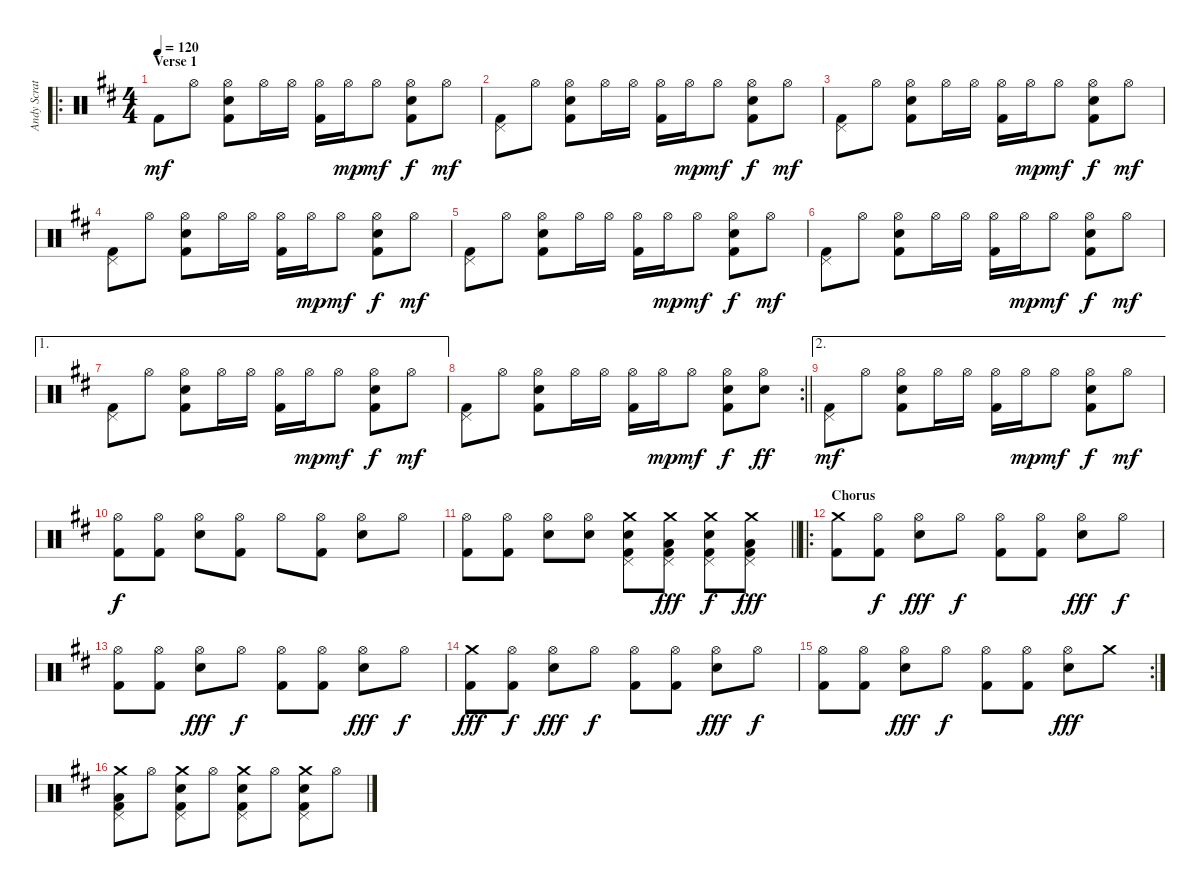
\track ("Andy Scratchen (Drums)" "Andy Scrat") {instrument percussion}
\staff {score}
\articulation defaults
\ro
\ts (4 4)
\section ("" "Verse 1")
\tempo 120
\clef neutral
\ks bminor "Kick (hit) 2".8{dy mf} "Hi-Hat (open)".8
("Hi-Hat (open)" "Snare (hit) 2" "Kick (hit) 2").8 "Hi-Hat (open)".16 "Hi-Hat (open)".16 ("Hi-Hat (open)" "Kick (hit) 2").16 "Hi-Hat (open)".16{dy mp} "Hi-Hat (open)".8{dy mf} ("Hi-Hat (open)" "Snare (hit) 2" "Kick (hit) 2").8{dy f} "Hi-Hat (open)".8{dy mf} |
("Pedal Hi-Hat (hit)" "Kick (hit) 2").8 "Hi-Hat (open)".8 ("Hi-Hat (open)" "Snare (hit) 2" "Kick (hit) 2").8 "Hi-Hat (open)".16 "Hi-Hat (open)".16 ("Hi-Hat (open)" "Kick (hit) 2").16 "Hi-Hat (open)".16{dy mp} "Hi-Hat (open)".8{dy mf} ("Hi-Hat (open)" "Snare (hit) 2" "Kick (hit) 2").8{dy f} "Hi-Hat (open)".8{dy mf} |
("Pedal Hi-Hat (hit)" "Kick (hit) 2").8 "Hi-Hat (open)".8 ("Hi-Hat (open)" "Snare (hit) 2" "Kick (hit) 2").8 "Hi-Hat (open)".16 "Hi-Hat (open)".16 ("Hi-Hat (open)" "Kick (hit) 2").16 "Hi-Hat (open)".16{dy mp} "Hi-Hat (open)".8{dy mf} ("Hi-Hat (open)" "Snare (hit) 2" "Kick (hit) 2").8{dy f} "Hi-Hat (open)".8{dy mf} |
("Pedal Hi-Hat (hit)" "Kick (hit) 2").8 "Hi-Hat (open)".8 ("Hi-Hat (open)" "Snare (hit) 2" "Kick (hit) 2").8 "Hi-Hat (open)".16 "Hi-Hat (open)".16 ("Hi-Hat (open)" "Kick (hit) 2").16 "Hi-Hat (open)".16{dy mp} "Hi-Hat (open)".8{dy mf} ("Hi-Hat (open)" "Snare (hit) 2" "Kick (hit) 2").8{dy f} "Hi-Hat (open)".8{dy mf} |
("Pedal Hi-Hat (hit)" "Kick (hit) 2").8 "Hi-Hat (open)".8 ("Hi-Hat (open)" "Snare (hit) 2" "Kick (hit) 2").8 "Hi-Hat (open)".16 "Hi-Hat (open)".16 ("Hi-Hat (open)" "Kick (hit) 2").16 "Hi-Hat (open)".16{dy mp} "Hi-Hat (open)".8{dy mf} ("Hi-Hat (open)" "Snare (hit) 2" "Kick (hit) 2").8{dy f} "Hi-Hat (open)".8{dy mf} |
("Pedal Hi-Hat (hit)" "Kick (hit) 2").8 "Hi-Hat (open)".8 ("Hi-Hat (open)" "Snare (hit) 2" "Kick (hit) 2").8 "Hi-Hat (open)".16 "Hi-Hat (open)".16 ("Hi-Hat (open)" "Kick (hit) 2").16 "Hi-Hat (open)".16{dy mp} "Hi-Hat (open)".8{dy mf} ("Hi-Hat (open)" "Snare (hit) 2" "Kick (hit) 2").8{dy f} "Hi-Hat (open)".8{dy mf} |
\ae 1
("Pedal Hi-Hat (hit)" "Kick (hit) 2").8 "Hi-Hat (open)".8 ("Hi-Hat (open)" "Snare (hit) 2" "Kick (hit) 2").8 "Hi-Hat (open)".16 "Hi-Hat (open)".16 ("Hi-Hat (open)" "Kick (hit) 2").16 "Hi-Hat (open)".16{dy mp} "Hi-Hat (open)".8{dy mf} ("Hi-Hat (open)" "Snare (hit) 2" "Kick (hit) 2").8{dy f} "Hi-Hat (open)".8{dy mf} |
\rc 2
\barLineRight lightlight
("Pedal Hi-Hat (hit)" "Kick (hit) 2").8 "Hi-Hat (open)".8 ("Hi-Hat (open)" "Snare (hit) 2" "Kick (hit) 2").8 "Hi-Hat (open)".16 "Hi-Hat (open)".16 ("Hi-Hat (open)" "Kick (hit) 2").16 "Hi-Hat (open)".16{dy mp} "Hi-Hat (open)".8{dy mf} ("Hi-Hat (open)" "Snare (hit) 2" "Kick (hit) 2").8{dy f} ("Hi-Hat (open)" "Snare (hit) 2").8{dy ff} |
\ae 2
("Pedal Hi-Hat (hit)" "Kick (hit) 2").8{dy mf} "Hi-Hat (open)".8 ("Hi-Hat (open)" "Snare (hit) 2" "Kick (hit) 2").8 "Hi-Hat (open)".16 "Hi-Hat (open)".16 ("Hi-Hat (open)" "Kick (hit) 2").16 "Hi-Hat (open)".16{dy mp} "Hi-Hat (open)".8{dy mf} ("Hi-Hat (open)" "Snare (hit) 2" "Kick (hit) 2").8{dy f} "Hi-Hat (open)".8{dy mf} |
("Hi-Hat (open)" "Kick (hit) 2").8{dy f} ("Hi-Hat (open)" "Kick (hit) 2").8 ("Hi-Hat (open)" "Snare (hit) 2").8 ("Hi-Hat (open)" "Kick (hit) 2").8 "Hi-Hat (open)".8 ("Hi-Hat (open)" "Kick (hit) 2").8 ("Hi-Hat (open)" "Snare (hit) 2").8 "Hi-Hat (open)".8 |
\barLineRight lightlight
("Hi-Hat (open)" "Kick (hit) 2").8 ("Hi-Hat (open)" "Kick (hit) 2").8 ("Hi-Hat (open)" "Snare (hit) 2").8 ("Hi-Hat (open)" "Snare (hit) 2").8 ("Crash medium (hit)" "Pedal Hi-Hat (hit)" "Snare (hit) 2" "Kick (hit) 2").8 ("Crash medium (hit)" "Pedal Hi-Hat (hit)" "Low Floor Tom (hit)" "Kick (hit) 2").8{dy fff} ("Crash medium (hit)" "Pedal Hi-Hat (hit)" "Snare (hit) 2" "Kick (hit) 2").8{dy f} ("Crash medium (hit)" "Pedal Hi-Hat (hit)" "Low Floor Tom (hit)" "Kick (hit) 2").8{dy fff} |
\ro
\section ("" "Chorus")
("Crash medium (hit)" "Kick (hit) 2").8{volume 13} ("Hi-Hat (open)" "Kick (hit) 2").8{dy f} ("Hi-Hat (open)" "Snare (hit) 2").8{dy fff} "Hi-Hat (open)".8{dy f} ("Hi-Hat (open)" "Kick (hit) 2").8 ("Hi-Hat (open)" "Kick (hit) 2").8 ("Hi-Hat (open)" "Snare (hit) 2").8{dy fff} "Hi-Hat (open)".8{dy f} |
("Hi-Hat (open)" "Kick (hit) 2").8 ("Hi-Hat (open)" "Kick (hit) 2").8 ("Hi-Hat (open)" "Snare (hit) 2").8{dy fff} "Hi-Hat (open)".8{dy f} ("Hi-Hat (open)" "Kick (hit) 2").8 ("Hi-Hat (open)" "Kick (hit) 2").8 ("Hi-Hat (open)" "Snare (hit) 2").8{dy fff} "Hi-Hat (open)".8{dy f} |
("Crash medium (hit)" "Kick (hit) 2").8{dy fff} ("Hi-Hat (open)" "Kick (hit) 2").8{dy f} ("Hi-Hat (open)" "Snare (hit) 2").8{dy fff} "Hi-Hat (open)".8{dy f} ("Hi-Hat (open)" "Kick (hit) 2").8 ("Hi-Hat (open)" "Kick (hit) 2").8 ("Hi-Hat (open)" "Snare (hit) 2").8{dy fff} "Hi-Hat (open)".8{dy f} |
\rc 2
("Hi-Hat (open)" "Kick (hit) 2").8 ("Hi-Hat (open)" "Kick (hit) 2").8 ("Hi-Hat (open)" "Snare (hit) 2").8{dy fff} "Hi-Hat (open)".8{dy f} ("Hi-Hat (open)" "Kick (hit) 2").8 ("Hi-Hat (open)" "Kick (hit) 2").8 ("Hi-Hat (open)" "Snare (hit) 2").8{dy fff} "Crash medium (hit)".8 |
("Crash medium (hit)" "Pedal Hi-Hat (hit)" "Low Floor Tom (hit)" "Kick (hit) 2").8 "Hi-Hat (open)".8 ("Crash medium (hit)" "Pedal Hi-Hat (hit)" "Snare (hit) 2" "Kick (hit) 2").8 "Hi-Hat (open)".8 ("Crash medium (hit)" "Pedal Hi-Hat (hit)" "Snare (hit) 2" "Kick (hit) 2").8 "Hi-Hat (open)".8 ("Crash medium (hit)" "Pedal Hi-Hat (hit)" "Snare (hit) 2" "Kick (hit) 2").8 "Hi-Hat (open)".8
